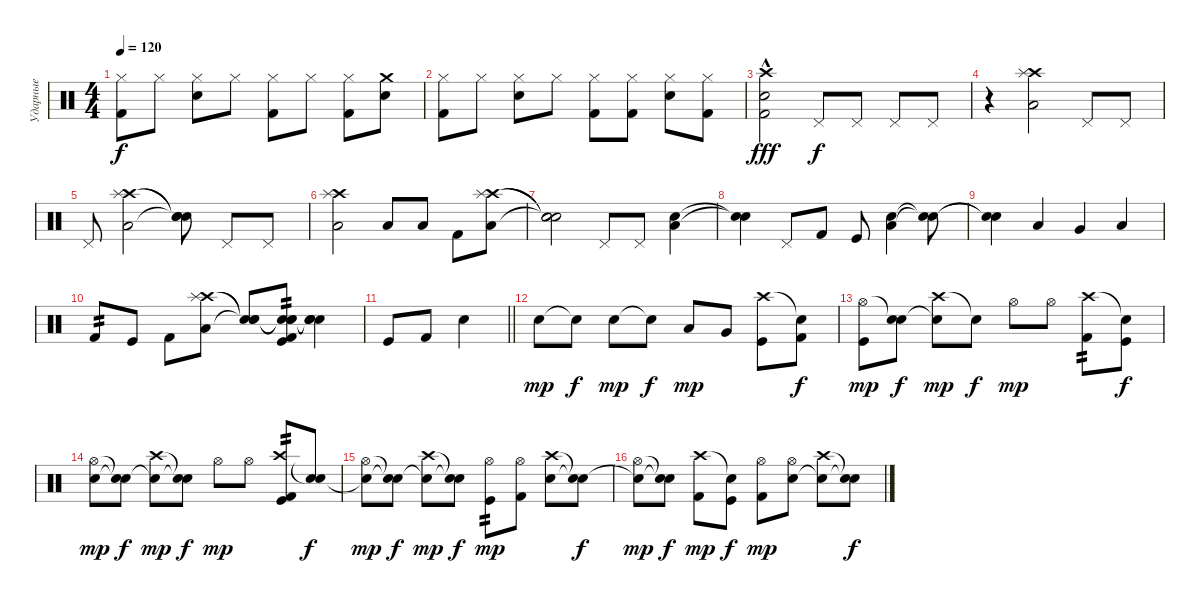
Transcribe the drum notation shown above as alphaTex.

\track ("Ударные" "Ударные") {instrument percussion}
\staff {score}
\articulation defaults
\ts (4 4)
\tempo 120
\clef neutral
\ks c
("Hi-Hat (closed)" "Kick (hit) 2").8{dy f} "Hi-Hat (closed)".8 ("Snare (hit) 2" "Hi-Hat (closed)").8 "Hi-Hat (closed)".8 ("Hi-Hat (closed)" "Kick (hit) 2").8 "Hi-Hat (closed)".8 ("Hi-Hat (closed)" "Kick (hit) 2").8 ("Crash medium (hit)" "Snare (hit) 2").8 |
("Hi-Hat (closed)" "Kick (hit) 2").8 "Hi-Hat (closed)".8 ("Snare (hit) 2" "Hi-Hat (closed)").8 "Hi-Hat (closed)".8 ("Kick (hit) 2" "Hi-Hat (closed)").8 ("Kick (hit) 2" "Hi-Hat (closed)").8 ("Snare (hit) 2" "Hi-Hat (closed)").8 ("Kick (hit) 2" "Hi-Hat (closed)").8 |
("Snare (hit) 2" "Crash high (hit)"{hac} "Kick (hit) 2").2{dy fff} "Pedal Hi-Hat (hit)".8{dy f} "Pedal Hi-Hat (hit)".8 "Pedal Hi-Hat (hit)".8 "Pedal Hi-Hat (hit)".8 |
r.4 ("Crash high (hit)" "Low Floor Tom (hit)" "Splash (hit)").2 "Pedal Hi-Hat (hit)".8 "Pedal Hi-Hat (hit)".8 |
"Pedal Hi-Hat (hit)".8 ("Crash high (hit)" "Low Floor Tom (hit)" "Splash (hit)").2 ("Snare (hit)"{t} "Snare (hit)"{t} "Snare (hit)"{t}).8 "Pedal Hi-Hat (hit)".8 "Pedal Hi-Hat (hit)".8 |
("Crash high (hit)" "Low Floor Tom (hit)" "Splash (hit)").2 "Low Floor Tom (hit)".8 "Low Tom (hit)".8 "Kick (hit) 2".8 ("Crash high (hit)" "Low Floor Tom (hit)" "Splash (hit)").8 |
("Snare (hit)"{t} "Snare (hit)"{t} "Snare (hit)"{t}).2 "Pedal Hi-Hat (hit)".8 "Pedal Hi-Hat (hit)".8 ("Snare (hit) 2" "Low Floor Tom (hit)").4 |
("Snare (hit)"{t} "Snare (hit)"{t}).4 "Pedal Hi-Hat (hit)".8 "Kick (hit) 2".8 "Kick (hit)".8 ("Snare (hit) 2" "Low Floor Tom (hit)").4 ("Snare (hit)"{t} "Snare (hit)"{t}).8 |
("Snare (hit)"{t} "Snare (hit)"{t}).4 "Low Floor Tom (hit)".4 "Very Low Tom (hit)".4 "Low Tom (hit)".4 |
"Kick (hit) 2".8{tp 2} "Kick (hit)".8 "Kick (hit) 2".8 ("Crash high (hit)" "Low Floor Tom (hit)" "Splash (hit)").8 ("Snare (hit)"{t} "Snare (hit)"{t} "Snare (hit)"{t}).8 ("Snare (hit)"{t} "Snare (hit)"{t} "Snare (hit)"{t} "Kick (hit)" "Kick (hit) 2").8{tp 2} ("Snare (hit)"{t} "Snare (hit)"{t} "Snare (hit)"{t} "Snare (hit) 2").4 |
\barLineRight lightlight "Kick (hit)".8 "Kick (hit) 2".8 "Electric Snare (hit)".4
|
"Snare (hit) 2".8{dy mp} "Snare (hit)"{t}.8{dy f} "Snare (hit) 2".8{dy mp} "Snare (hit)"{t}.8{dy f} "Low Floor Tom (hit)".8{dy mp} "Very Low Tom (hit)".8 ("Crash high (hit)" "Kick (hit)").8 ("Snare (hit)"{t} "Kick (hit) 2").8{dy f} |
("Hi-Hat (open)" "Kick (hit)").8{dy mp} ("Snare (hit)"{t} "Snare (hit) 2").8{dy f} ("Crash high (hit)" "Snare (hit)"{t}).8{dy mp} "Snare (hit)"{t}.8{dy f} "Hi-Hat (open)".8{dy mp} "Hi-Hat (open)".8 ("Crash high (hit)" "Kick (hit) 2").8{tp 2} ("Snare (hit)"{t} "Kick (hit)").8{dy f} |
("Hi-Hat (open)" "Snare (hit) 2").8{dy mp} ("Snare (hit)"{t} "Snare (hit)"{t}).8{dy f} ("Crash high (hit)" "Snare (hit)"{t}).8{dy mp} ("Snare (hit)"{t} "Snare (hit)"{t}).8{dy f} "Hi-Hat (open)".8{dy mp} "Hi-Hat (open)".8 ("Crash high (hit)" "Kick (hit)" "Kick (hit) 2").8{tp 2} ("Snare (hit)"{t} "Snare (hit) 2").8{dy f} |
("Hi-Hat (open)" "Snare (hit)"{t}).8{dy mp} ("Snare (hit)"{t} "Snare (hit)"{t}).8{dy f} ("Crash high (hit)" "Snare (hit)"{t}).8{dy mp} ("Snare (hit)"{t} "Snare (hit)"{t}).8{dy f} ("Hi-Hat (open)" "Kick (hit)").8{tp 2 dy mp} ("Hi-Hat (open)" "Kick (hit) 2").8 ("Crash high (hit)" "Snare (hit) 2").8 ("Snare (hit)"{t} "Snare (hit)"{t}).8{dy f} |
("Hi-Hat (open)" "Snare (hit)"{t}).8{dy mp} ("Snare (hit)"{t} "Snare (hit)"{t}).8{dy f} ("Crash high (hit)" "Kick (hit) 2").8{dy mp} ("Snare (hit)"{t} "Kick (hit)").8{dy f} ("Hi-Hat (open)" "Kick (hit) 2").8{dy mp} ("Hi-Hat (open)" "Snare (hit) 2").8 ("Crash high (hit)" "Snare (hit)"{t}).8 ("Snare (hit)"{t} "Snare (hit)"{t}).8{dy f}
